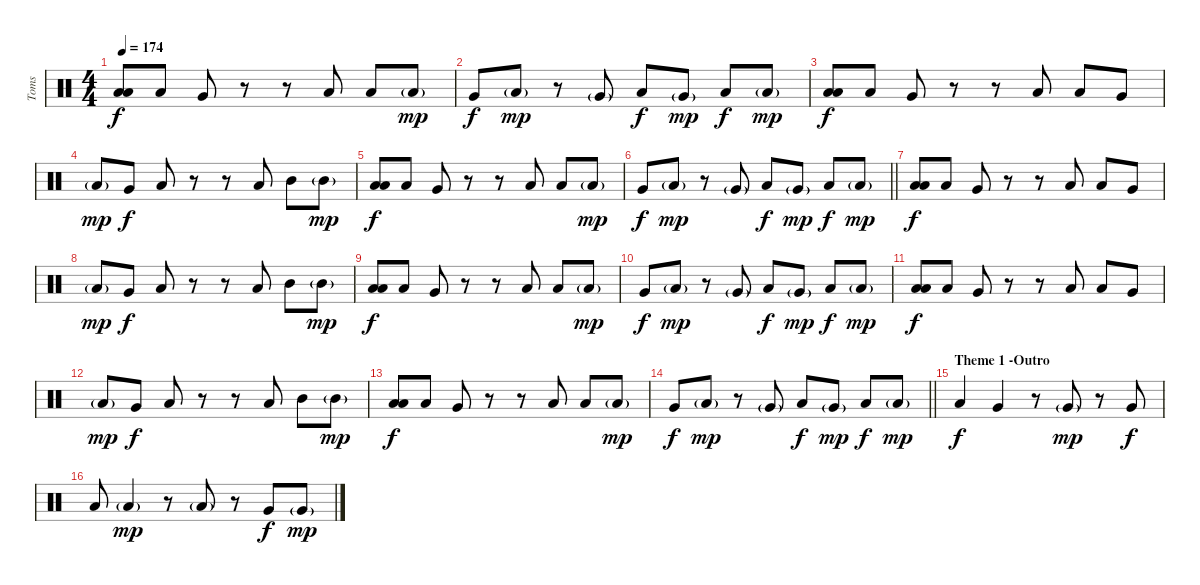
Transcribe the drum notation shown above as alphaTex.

\track ("Toms" "Toms") {instrument percussion}
\staff {score}
\articulation defaults
\ts (4 4)
\tempo 174
\clef neutral
\ks c
("Low Tom (hit)" "Low Floor Tom (hit)").8{dy f} "Low Tom (hit)".8 "Very Low Tom (hit)".8 r.8 r.8 "Low Floor Tom (hit)".8 "Low Floor Tom (hit)".8 "Low Floor Tom (hit)"{g}.8{dy mp} |
"Very Low Tom (hit)".8{dy f} "Low Floor Tom (hit)"{g}.8{dy mp} r.8 "Very Low Tom (hit)"{g}.8 "Low Tom (hit)".8{dy f} "Very Low Tom (hit)"{g}.8{dy mp} "Low Tom (hit)".8{dy f} "Low Tom (hit)"{g}.8{dy mp} |
("Low Tom (hit)" "Low Floor Tom (hit)").8{dy f} "Low Tom (hit)".8 "Very Low Tom (hit)".8 r.8 r.8 "Low Floor Tom (hit)".8 "Low Floor Tom (hit)".8 "Very Low Tom (hit)".8 |
"Low Tom (hit)"{g}.8{dy mp} "Very Low Tom (hit)".8{dy f} "Low Floor Tom (hit)".8 r.8 r.8 "Low Floor Tom (hit)".8 "Mid Tom (hit)".8 "Mid Tom (hit)"{g}.8{dy mp} |
("Low Tom (hit)" "Low Floor Tom (hit)").8{dy f} "Low Tom (hit)".8 "Very Low Tom (hit)".8 r.8 r.8 "Low Floor Tom (hit)".8 "Low Floor Tom (hit)".8 "Low Floor Tom (hit)"{g}.8{dy mp} |
\barLineRight lightlight "Very Low Tom (hit)".8{dy f} "Low Floor Tom (hit)"{g}.8{dy mp}
r.8 "Very Low Tom (hit)"{g}.8 "Low Tom (hit)".8{dy f} "Very Low Tom (hit)"{g}.8{dy mp} "Low Tom (hit)".8{dy f} "Low Tom (hit)"{g}.8{dy mp} |
("Low Tom (hit)" "Low Floor Tom (hit)").8{dy f} "Low Tom (hit)".8 "Very Low Tom (hit)".8 r.8 r.8 "Low Floor Tom (hit)".8 "Low Floor Tom (hit)".8 "Very Low Tom (hit)".8 |
"Low Tom (hit)"{g}.8{dy mp} "Very Low Tom (hit)".8{dy f} "Low Floor Tom (hit)".8 r.8 r.8 "Low Floor Tom (hit)".8 "Mid Tom (hit)".8 "Mid Tom (hit)"{g}.8{dy mp} |
("Low Tom (hit)" "Low Floor Tom (hit)").8{dy f} "Low Tom (hit)".8 "Very Low Tom (hit)".8 r.8 r.8 "Low Floor Tom (hit)".8 "Low Floor Tom (hit)".8 "Low Floor Tom (hit)"{g}.8{dy mp} |
"Very Low Tom (hit)".8{dy f} "Low Floor Tom (hit)"{g}.8{dy mp} r.8 "Very Low Tom (hit)"{g}.8 "Low Tom (hit)".8{dy f} "Very Low Tom (hit)"{g}.8{dy mp} "Low Tom (hit)".8{dy f} "Low Tom (hit)"{g}.8{dy mp} |
("Low Tom (hit)" "Low Floor Tom (hit)").8{dy f} "Low Tom (hit)".8 "Very Low Tom (hit)".8 r.8 r.8 "Low Floor Tom (hit)".8 "Low Floor Tom (hit)".8 "Very Low Tom (hit)".8 |
"Low Tom (hit)"{g}.8{dy mp} "Very Low Tom (hit)".8{dy f} "Low Floor Tom (hit)".8 r.8 r.8 "Low Floor Tom (hit)".8 "Mid Tom (hit)".8 "Mid Tom (hit)"{g}.8{dy mp} |
("Low Tom (hit)" "Low Floor Tom (hit)").8{dy f} "Low Tom (hit)".8 "Very Low Tom (hit)".8 r.8 r.8 "Low Floor Tom (hit)".8 "Low Floor Tom (hit)".8 "Low Floor Tom (hit)"{g}.8{dy mp} |
\barLineRight lightlight "Very Low Tom (hit)".8{dy f} "Low Floor Tom (hit)"{g}.8{dy mp}
r.8 "Very Low Tom (hit)"{g}.8 "Low Tom (hit)".8{dy f} "Very Low Tom (hit)"{g}.8{dy mp} "Low Tom (hit)".8{dy f} "Low Tom (hit)"{g}.8{dy mp} |
\section ("" "Theme 1 -Outro")
"Low Tom (hit)".4{dy f} "Very Low Tom (hit)".4 r.8 "Very Low Tom (hit)"{g}.8{dy mp} r.8 "Very Low Tom (hit)".8{dy f} |
"Low Tom (hit)".8 "Low Floor Tom (hit)"{g}.4{dy mp} r.8 "Low Floor Tom (hit)"{g}.8 r.8 "Very Low Tom (hit)".8{dy f} "Very Low Tom (hit)"{g}.8{dy mp}
